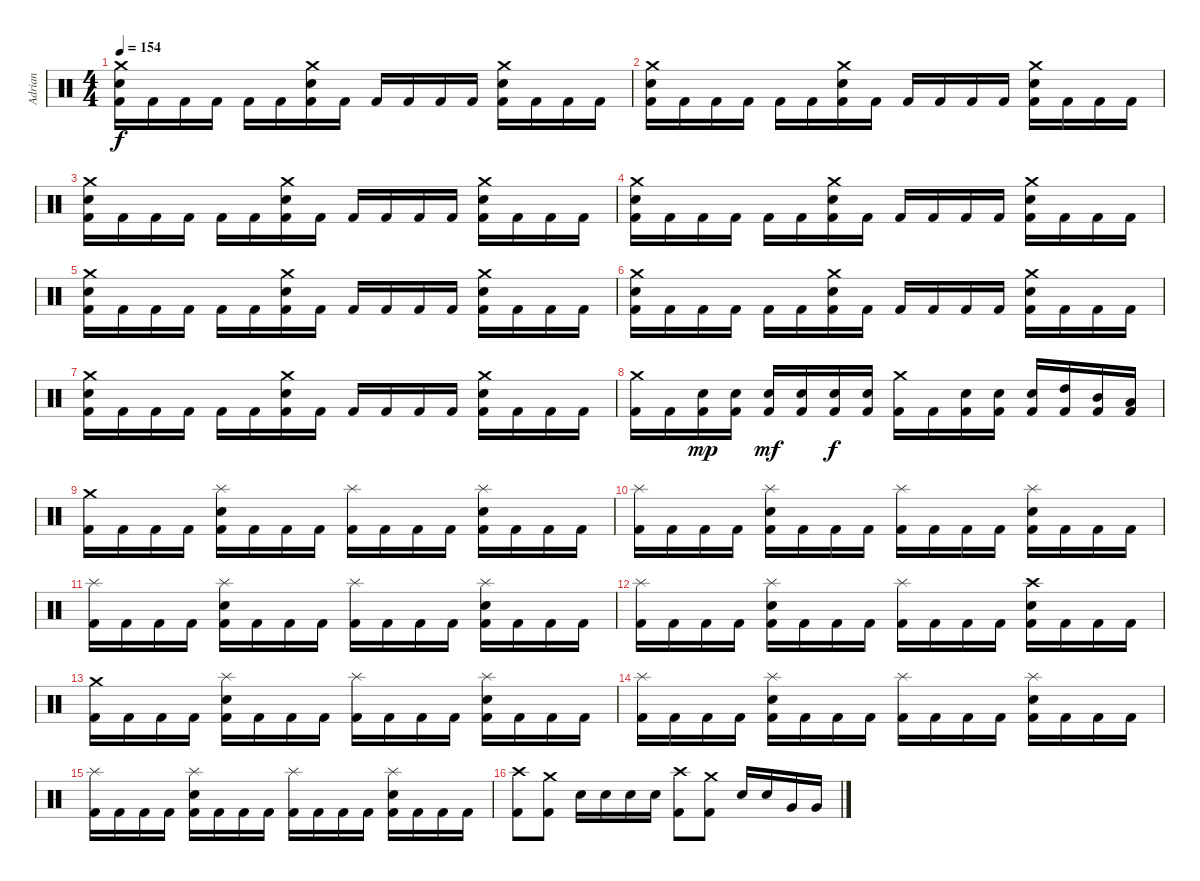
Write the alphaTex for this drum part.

\track ("Adrian" "Adrian") {instrument percussion}
\staff {score}
\articulation defaults
\ts (4 4)
\tempo 154
\clef neutral
\ks c
("Crash medium (hit)" "Electric Snare (hit)" "Kick (hit) 2").16{dy f} "Kick (hit) 2".16 "Kick (hit) 2".16 "Kick (hit) 2".16 "Kick (hit) 2".16 "Kick (hit) 2".16 ("Crash medium (hit)" "Electric Snare (hit)" "Kick (hit) 2").16 "Kick (hit) 2".16 "Kick (hit) 2".16 "Kick (hit) 2".16 "Kick (hit) 2".16 "Kick (hit) 2".16 ("Crash medium (hit)" "Electric Snare (hit)" "Kick (hit) 2").16 "Kick (hit) 2".16 "Kick (hit) 2".16 "Kick (hit) 2".16 |
("Crash medium (hit)" "Electric Snare (hit)" "Kick (hit) 2").16 "Kick (hit) 2".16 "Kick (hit) 2".16 "Kick (hit) 2".16 "Kick (hit) 2".16 "Kick (hit) 2".16 ("Crash medium (hit)" "Electric Snare (hit)" "Kick (hit) 2").16 "Kick (hit) 2".16 "Kick (hit) 2".16 "Kick (hit) 2".16 "Kick (hit) 2".16 "Kick (hit) 2".16 ("Crash medium (hit)" "Electric Snare (hit)" "Kick (hit) 2").16 "Kick (hit) 2".16 "Kick (hit) 2".16 "Kick (hit) 2".16 |
("Crash medium (hit)" "Electric Snare (hit)" "Kick (hit) 2").16 "Kick (hit) 2".16 "Kick (hit) 2".16 "Kick (hit) 2".16 "Kick (hit) 2".16 "Kick (hit) 2".16 ("Crash medium (hit)" "Electric Snare (hit)" "Kick (hit) 2").16 "Kick (hit) 2".16 "Kick (hit) 2".16 "Kick (hit) 2".16 "Kick (hit) 2".16 "Kick (hit) 2".16 ("Crash medium (hit)" "Electric Snare (hit)" "Kick (hit) 2").16 "Kick (hit) 2".16 "Kick (hit) 2".16 "Kick (hit) 2".16 |
("Crash medium (hit)" "Electric Snare (hit)" "Kick (hit) 2").16 "Kick (hit) 2".16 "Kick (hit) 2".16 "Kick (hit) 2".16 "Kick (hit) 2".16 "Kick (hit) 2".16 ("Crash medium (hit)" "Electric Snare (hit)" "Kick (hit) 2").16 "Kick (hit) 2".16 "Kick (hit) 2".16 "Kick (hit) 2".16 "Kick (hit) 2".16 "Kick (hit) 2".16 ("Crash medium (hit)" "Electric Snare (hit)" "Kick (hit) 2").16 "Kick (hit) 2".16 "Kick (hit) 2".16 "Kick (hit) 2".16 |
("Crash medium (hit)" "Electric Snare (hit)" "Kick (hit) 2").16 "Kick (hit) 2".16 "Kick (hit) 2".16 "Kick (hit) 2".16 "Kick (hit) 2".16 "Kick (hit) 2".16 ("Crash medium (hit)" "Electric Snare (hit)" "Kick (hit) 2").16 "Kick (hit) 2".16 "Kick (hit) 2".16 "Kick (hit) 2".16 "Kick (hit) 2".16 "Kick (hit) 2".16 ("Crash medium (hit)" "Electric Snare (hit)" "Kick (hit) 2").16 "Kick (hit) 2".16 "Kick (hit) 2".16 "Kick (hit) 2".16 |
("Crash medium (hit)" "Electric Snare (hit)" "Kick (hit) 2").16 "Kick (hit) 2".16 "Kick (hit) 2".16 "Kick (hit) 2".16 "Kick (hit) 2".16 "Kick (hit) 2".16 ("Crash medium (hit)" "Electric Snare (hit)" "Kick (hit) 2").16 "Kick (hit) 2".16 "Kick (hit) 2".16 "Kick (hit) 2".16 "Kick (hit) 2".16 "Kick (hit) 2".16 ("Crash medium (hit)" "Electric Snare (hit)" "Kick (hit) 2").16 "Kick (hit) 2".16 "Kick (hit) 2".16 "Kick (hit) 2".16 |
("Crash medium (hit)" "Electric Snare (hit)" "Kick (hit) 2").16 "Kick (hit) 2".16 "Kick (hit) 2".16 "Kick (hit) 2".16 "Kick (hit) 2".16 "Kick (hit) 2".16 ("Crash medium (hit)" "Electric Snare (hit)" "Kick (hit) 2").16 "Kick (hit) 2".16 "Kick (hit) 2".16 "Kick (hit) 2".16 "Kick (hit) 2".16 "Kick (hit) 2".16 ("Crash medium (hit)" "Electric Snare (hit)" "Kick (hit) 2").16 "Kick (hit) 2".16 "Kick (hit) 2".16 "Kick (hit) 2".16 |
("Crash medium (hit)" "Kick (hit) 2").16 "Kick (hit) 2".16 ("Electric Snare (hit)" "Kick (hit) 2").16{dy mp} ("Electric Snare (hit)" "Kick (hit) 2").16 ("Electric Snare (hit)" "Kick (hit) 2").16{dy mf} ("Electric Snare (hit)" "Kick (hit) 2").16 ("Electric Snare (hit)" "Kick (hit) 2").16{dy f} ("Electric Snare (hit)" "Kick (hit) 2").16 ("Crash medium (hit)" "Kick (hit) 2").16 "Kick (hit) 2".16 ("Electric Snare (hit)" "Kick (hit) 2").16 ("Electric Snare (hit)" "Kick (hit) 2").16 ("Electric Snare (hit)" "Kick (hit) 2").16 ("High Tom (hit)" "Kick (hit) 2").16 ("Mid Tom (hit)" "Kick (hit) 2").16 ("Low Tom (hit)" "Kick (hit) 2").16 |
("Crash medium (hit)" "Kick (hit) 2").16 "Kick (hit) 2".16 "Kick (hit) 2".16 "Kick (hit) 2".16 ("Splash (hit)" "Electric Snare (hit)" "Kick (hit) 2").16 "Kick (hit) 2".16 "Kick (hit) 2".16 "Kick (hit) 2".16 ("Splash (hit)" "Kick (hit) 2").16 "Kick (hit) 2".16 "Kick (hit) 2".16 "Kick (hit) 2".16 ("Splash (hit)" "Electric Snare (hit)" "Kick (hit) 2").16 "Kick (hit) 2".16 "Kick (hit) 2".16 "Kick (hit) 2".16 |
("Splash (hit)" "Kick (hit) 2").16 "Kick (hit) 2".16 "Kick (hit) 2".16 "Kick (hit) 2".16 ("Splash (hit)" "Electric Snare (hit)" "Kick (hit) 2").16 "Kick (hit) 2".16 "Kick (hit) 2".16 "Kick (hit) 2".16 ("Splash (hit)" "Kick (hit) 2").16 "Kick (hit) 2".16 "Kick (hit) 2".16 "Kick (hit) 2".16 ("Splash (hit)" "Electric Snare (hit)" "Kick (hit) 2").16 "Kick (hit) 2".16 "Kick (hit) 2".16 "Kick (hit) 2".16 |
("Splash (hit)" "Kick (hit) 2").16 "Kick (hit) 2".16 "Kick (hit) 2".16 "Kick (hit) 2".16 ("Splash (hit)" "Electric Snare (hit)" "Kick (hit) 2").16 "Kick (hit) 2".16 "Kick (hit) 2".16 "Kick (hit) 2".16 ("Splash (hit)" "Kick (hit) 2").16 "Kick (hit) 2".16 "Kick (hit) 2".16 "Kick (hit) 2".16 ("Splash (hit)" "Electric Snare (hit)" "Kick (hit) 2").16 "Kick (hit) 2".16 "Kick (hit) 2".16 "Kick (hit) 2".16 |
("Splash (hit)" "Kick (hit) 2").16 "Kick (hit) 2".16 "Kick (hit) 2".16 "Kick (hit) 2".16 ("Splash (hit)" "Electric Snare (hit)" "Kick (hit) 2").16 "Kick (hit) 2".16 "Kick (hit) 2".16 "Kick (hit) 2".16 ("Splash (hit)" "Kick (hit) 2").16 "Kick (hit) 2".16 "Kick (hit) 2".16 "Kick (hit) 2".16 ("Crash high (hit)" "Electric Snare (hit)" "Kick (hit) 2").16 "Kick (hit) 2".16 "Kick (hit) 2".16 "Kick (hit) 2".16 |
("Crash medium (hit)" "Kick (hit) 2").16 "Kick (hit) 2".16 "Kick (hit) 2".16 "Kick (hit) 2".16 ("Splash (hit)" "Electric Snare (hit)" "Kick (hit) 2").16 "Kick (hit) 2".16 "Kick (hit) 2".16 "Kick (hit) 2".16 ("Splash (hit)" "Kick (hit) 2").16 "Kick (hit) 2".16 "Kick (hit) 2".16 "Kick (hit) 2".16 ("Splash (hit)" "Electric Snare (hit)" "Kick (hit) 2").16 "Kick (hit) 2".16 "Kick (hit) 2".16 "Kick (hit) 2".16 |
("Splash (hit)" "Kick (hit) 2").16 "Kick (hit) 2".16 "Kick (hit) 2".16 "Kick (hit) 2".16 ("Splash (hit)" "Electric Snare (hit)" "Kick (hit) 2").16 "Kick (hit) 2".16 "Kick (hit) 2".16 "Kick (hit) 2".16 ("Splash (hit)" "Kick (hit) 2").16 "Kick (hit) 2".16 "Kick (hit) 2".16 "Kick (hit) 2".16 ("Splash (hit)" "Electric Snare (hit)" "Kick (hit) 2").16 "Kick (hit) 2".16 "Kick (hit) 2".16 "Kick (hit) 2".16 |
("Splash (hit)" "Kick (hit) 2").16 "Kick (hit) 2".16 "Kick (hit) 2".16 "Kick (hit) 2".16 ("Splash (hit)" "Electric Snare (hit)" "Kick (hit) 2").16 "Kick (hit) 2".16 "Kick (hit) 2".16 "Kick (hit) 2".16 ("Splash (hit)" "Kick (hit) 2").16 "Kick (hit) 2".16 "Kick (hit) 2".16 "Kick (hit) 2".16 ("Splash (hit)" "Electric Snare (hit)" "Kick (hit) 2").16 "Kick (hit) 2".16 "Kick (hit) 2".16 "Kick (hit) 2".16 |
("Crash high (hit)" "Kick (hit) 2").8 ("Crash medium (hit)" "Kick (hit) 2").8 "Electric Snare (hit)".16 "Electric Snare (hit)".16 "Electric Snare (hit)".16 "Electric Snare (hit)".16 ("Crash high (hit)" "Kick (hit) 2").8 ("Crash medium (hit)" "Kick (hit) 2").8 "Electric Snare (hit)".16 "Electric Snare (hit)".16 "Very Low Tom (hit)".16 "Very Low Tom (hit)".16
